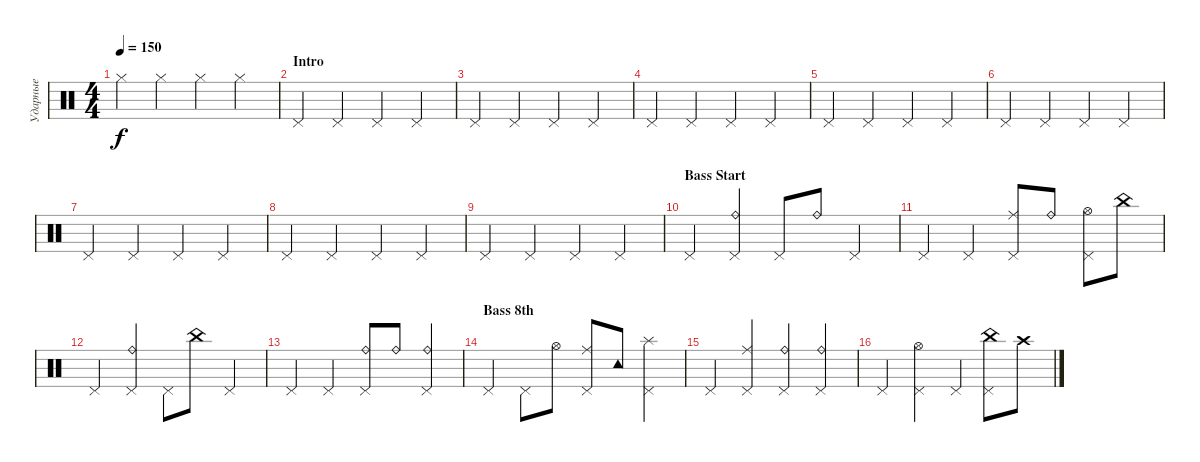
\track ("Ударные" "Ударные") {instrument percussion}
\staff {score}
\articulation defaults
\ts (4 4)
\tempo 150
\clef neutral
\ks c "Hi-Hat (closed)".4{dy f} "Hi-Hat (closed)".4 "Hi-Hat (closed)".4 "Hi-Hat (closed)".4
|
\section ("" "Intro")
"Pedal Hi-Hat (hit)".4 "Pedal Hi-Hat (hit)".4 "Pedal Hi-Hat (hit)".4 "Pedal Hi-Hat (hit)".4 |
"Pedal Hi-Hat (hit)".4 "Pedal Hi-Hat (hit)".4 "Pedal Hi-Hat (hit)".4 "Pedal Hi-Hat (hit)".4 |
"Pedal Hi-Hat (hit)".4 "Pedal Hi-Hat (hit)".4 "Pedal Hi-Hat (hit)".4 "Pedal Hi-Hat (hit)".4 |
"Pedal Hi-Hat (hit)".4 "Pedal Hi-Hat (hit)".4 "Pedal Hi-Hat (hit)".4 "Pedal Hi-Hat (hit)".4 |
"Pedal Hi-Hat (hit)".4 "Pedal Hi-Hat (hit)".4 "Pedal Hi-Hat (hit)".4 "Pedal Hi-Hat (hit)".4 |
"Pedal Hi-Hat (hit)".4 "Pedal Hi-Hat (hit)".4 "Pedal Hi-Hat (hit)".4 "Pedal Hi-Hat (hit)".4 |
"Pedal Hi-Hat (hit)".4 "Pedal Hi-Hat (hit)".4 "Pedal Hi-Hat (hit)".4 "Pedal Hi-Hat (hit)".4 |
"Pedal Hi-Hat (hit)".4 "Pedal Hi-Hat (hit)".4 "Pedal Hi-Hat (hit)".4 "Pedal Hi-Hat (hit)".4 |
\section ("" "Bass Start")
"Pedal Hi-Hat (hit)".4 ("Pedal Hi-Hat (hit)" "Ride (bell)").4 "Pedal Hi-Hat (hit)".8 "Ride (bell)".8 "Pedal Hi-Hat (hit)".4 |
"Pedal Hi-Hat (hit)".4 "Pedal Hi-Hat (hit)".4 ("Pedal Hi-Hat (hit)" "Ride (middle)").8 "Ride (bell)".8 ("Pedal Hi-Hat (hit)" "Hi-Hat (open)").8 "China (hit)".8 |
"Pedal Hi-Hat (hit)".4 ("Pedal Hi-Hat (hit)" "Ride (bell)").4 "Pedal Hi-Hat (hit)".8 "China (hit)".8 "Pedal Hi-Hat (hit)".4 |
"Pedal Hi-Hat (hit)".4 "Pedal Hi-Hat (hit)".4 ("Pedal Hi-Hat (hit)" "Ride (bell)").8 "Ride (bell)".8 ("Pedal Hi-Hat (hit)" "Ride (bell)").4 |
\section ("" "Bass 8th")
"Pedal Hi-Hat (hit)".4 "Pedal Hi-Hat (hit)".8 "Hi-Hat (open)".8 ("Pedal Hi-Hat (hit)" "Ride (middle)").8 "Tambourine (hit)".8 ("Pedal Hi-Hat (hit)" "Splash (hit)").4 |
"Pedal Hi-Hat (hit)".4 ("Pedal Hi-Hat (hit)" "Ride (middle)").4 ("Pedal Hi-Hat (hit)" "Ride (bell)").4 ("Pedal Hi-Hat (hit)" "Ride (bell)").4 |
"Pedal Hi-Hat (hit)".4 ("Pedal Hi-Hat (hit)" "Hi-Hat (open)").4 "Pedal Hi-Hat (hit)".4 ("Pedal Hi-Hat (hit)" "China (hit)").8 "Crash high (hit)".8
